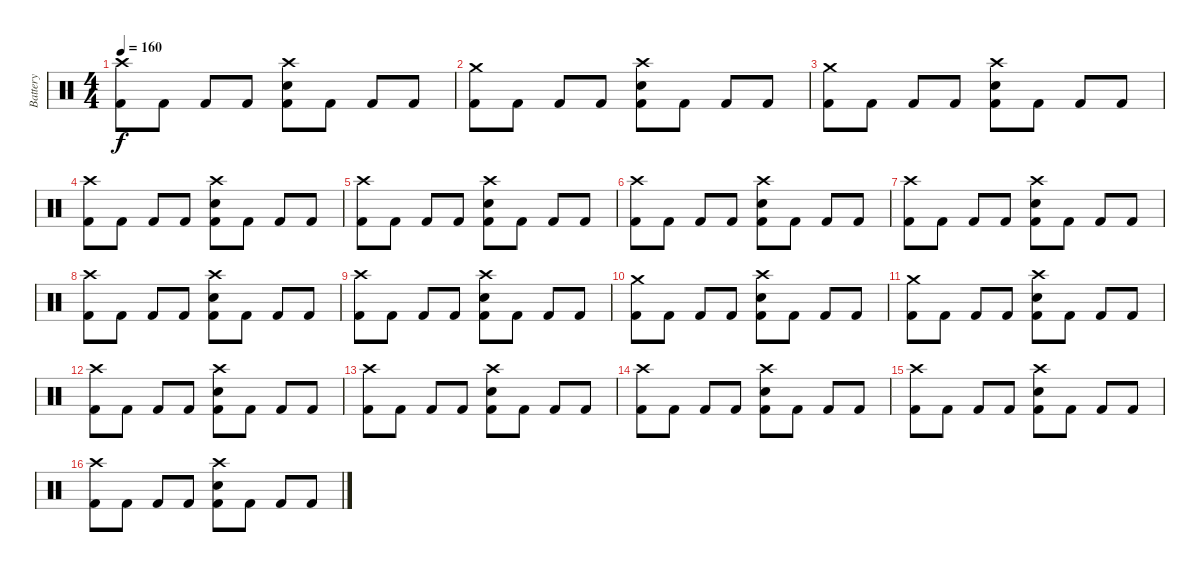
\track ("Battery" "Battery") {instrument percussion}
\staff {score}
\articulation defaults
\ts (4 4)
\tempo 160
\clef neutral
\ks c
("Crash high (hit)" "Kick (hit) 2").8{dy f} "Kick (hit) 2".8 "Kick (hit) 2".8 "Kick (hit) 2".8 ("Crash high (hit)" "Electric Snare (hit)" "Kick (hit) 2").8 "Kick (hit) 2".8 "Kick (hit) 2".8 "Kick (hit) 2".8 |
("Crash medium (hit)" "Kick (hit) 2").8 "Kick (hit) 2".8 "Kick (hit) 2".8 "Kick (hit) 2".8 ("Crash high (hit)" "Electric Snare (hit)" "Kick (hit) 2").8 "Kick (hit) 2".8 "Kick (hit) 2".8 "Kick (hit) 2".8 |
("Crash medium (hit)" "Kick (hit) 2").8 "Kick (hit) 2".8 "Kick (hit) 2".8 "Kick (hit) 2".8 ("Crash high (hit)" "Electric Snare (hit)" "Kick (hit) 2").8 "Kick (hit) 2".8 "Kick (hit) 2".8 "Kick (hit) 2".8 |
("Crash high (hit)" "Kick (hit) 2").8 "Kick (hit) 2".8 "Kick (hit) 2".8 "Kick (hit) 2".8 ("Crash high (hit)" "Electric Snare (hit)" "Kick (hit) 2").8 "Kick (hit) 2".8 "Kick (hit) 2".8 "Kick (hit) 2".8 |
("Crash high (hit)" "Kick (hit) 2").8 "Kick (hit) 2".8 "Kick (hit) 2".8 "Kick (hit) 2".8 ("Crash high (hit)" "Electric Snare (hit)" "Kick (hit) 2").8 "Kick (hit) 2".8 "Kick (hit) 2".8 "Kick (hit) 2".8 |
("Crash high (hit)" "Kick (hit) 2").8 "Kick (hit) 2".8 "Kick (hit) 2".8 "Kick (hit) 2".8 ("Crash high (hit)" "Electric Snare (hit)" "Kick (hit) 2").8 "Kick (hit) 2".8 "Kick (hit) 2".8 "Kick (hit) 2".8 |
("Crash high (hit)" "Kick (hit) 2").8 "Kick (hit) 2".8 "Kick (hit) 2".8 "Kick (hit) 2".8 ("Crash high (hit)" "Electric Snare (hit)" "Kick (hit) 2").8 "Kick (hit) 2".8 "Kick (hit) 2".8 "Kick (hit) 2".8 |
("Crash high (hit)" "Kick (hit) 2").8 "Kick (hit) 2".8 "Kick (hit) 2".8 "Kick (hit) 2".8 ("Crash high (hit)" "Electric Snare (hit)" "Kick (hit) 2").8 "Kick (hit) 2".8 "Kick (hit) 2".8 "Kick (hit) 2".8 |
("Crash high (hit)" "Kick (hit) 2").8 "Kick (hit) 2".8 "Kick (hit) 2".8 "Kick (hit) 2".8 ("Crash high (hit)" "Electric Snare (hit)" "Kick (hit) 2").8 "Kick (hit) 2".8 "Kick (hit) 2".8 "Kick (hit) 2".8 |
("Crash medium (hit)" "Kick (hit) 2").8 "Kick (hit) 2".8 "Kick (hit) 2".8 "Kick (hit) 2".8 ("Crash high (hit)" "Electric Snare (hit)" "Kick (hit) 2").8 "Kick (hit) 2".8 "Kick (hit) 2".8 "Kick (hit) 2".8 |
("Crash medium (hit)" "Kick (hit) 2").8 "Kick (hit) 2".8 "Kick (hit) 2".8 "Kick (hit) 2".8 ("Crash high (hit)" "Electric Snare (hit)" "Kick (hit) 2").8 "Kick (hit) 2".8 "Kick (hit) 2".8 "Kick (hit) 2".8 |
("Crash high (hit)" "Kick (hit) 2").8 "Kick (hit) 2".8 "Kick (hit) 2".8 "Kick (hit) 2".8 ("Crash high (hit)" "Electric Snare (hit)" "Kick (hit) 2").8 "Kick (hit) 2".8 "Kick (hit) 2".8 "Kick (hit) 2".8 |
("Crash high (hit)" "Kick (hit) 2").8 "Kick (hit) 2".8 "Kick (hit) 2".8 "Kick (hit) 2".8 ("Crash high (hit)" "Electric Snare (hit)" "Kick (hit) 2").8 "Kick (hit) 2".8 "Kick (hit) 2".8 "Kick (hit) 2".8 |
("Crash high (hit)" "Kick (hit) 2").8 "Kick (hit) 2".8 "Kick (hit) 2".8 "Kick (hit) 2".8 ("Crash high (hit)" "Electric Snare (hit)" "Kick (hit) 2").8 "Kick (hit) 2".8 "Kick (hit) 2".8 "Kick (hit) 2".8 |
("Crash high (hit)" "Kick (hit) 2").8 "Kick (hit) 2".8 "Kick (hit) 2".8 "Kick (hit) 2".8 ("Crash high (hit)" "Electric Snare (hit)" "Kick (hit) 2").8 "Kick (hit) 2".8 "Kick (hit) 2".8 "Kick (hit) 2".8 |
("Crash high (hit)" "Kick (hit) 2").8 "Kick (hit) 2".8 "Kick (hit) 2".8 "Kick (hit) 2".8 ("Crash high (hit)" "Electric Snare (hit)" "Kick (hit) 2").8 "Kick (hit) 2".8 "Kick (hit) 2".8 "Kick (hit) 2".8
